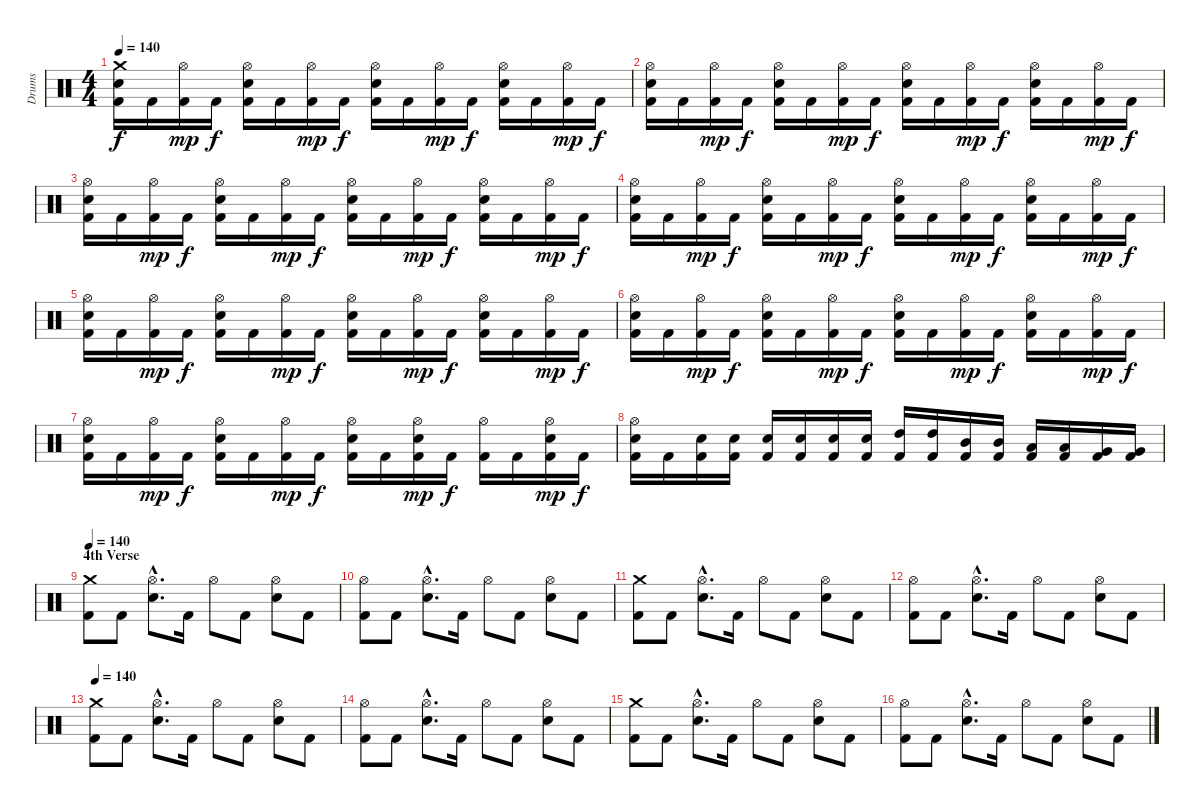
\track ("Drums" "Drums") {instrument percussion}
\staff {score}
\articulation defaults
\ts (4 4)
\tempo 140
\clef neutral
\ks c
("Kick (hit) 2" "Electric Snare (hit)" "Crash medium (hit)").16{dy f} "Kick (hit) 2".16 ("Kick (hit) 2" "Hi-Hat (open)").16{dy mp} "Kick (hit) 2".16{dy f} ("Kick (hit) 2" "Electric Snare (hit)" "Hi-Hat (open)").16 "Kick (hit) 2".16 ("Kick (hit) 2" "Hi-Hat (open)").16{dy mp} "Kick (hit) 2".16{dy f} ("Kick (hit) 2" "Electric Snare (hit)" "Hi-Hat (open)").16 "Kick (hit) 2".16 ("Kick (hit) 2" "Hi-Hat (open)").16{dy mp} "Kick (hit) 2".16{dy f} ("Kick (hit) 2" "Electric Snare (hit)" "Hi-Hat (open)").16 "Kick (hit) 2".16 ("Kick (hit) 2" "Hi-Hat (open)").16{dy mp} "Kick (hit) 2".16{dy f} |
("Kick (hit) 2" "Electric Snare (hit)" "Hi-Hat (open)").16 "Kick (hit) 2".16 ("Kick (hit) 2" "Hi-Hat (open)").16{dy mp} "Kick (hit) 2".16{dy f} ("Kick (hit) 2" "Electric Snare (hit)" "Hi-Hat (open)").16 "Kick (hit) 2".16 ("Kick (hit) 2" "Hi-Hat (open)").16{dy mp} "Kick (hit) 2".16{dy f} ("Kick (hit) 2" "Electric Snare (hit)" "Hi-Hat (open)").16 "Kick (hit) 2".16 ("Kick (hit) 2" "Hi-Hat (open)").16{dy mp} "Kick (hit) 2".16{dy f} ("Kick (hit) 2" "Electric Snare (hit)" "Hi-Hat (open)").16 "Kick (hit) 2".16 ("Kick (hit) 2" "Hi-Hat (open)").16{dy mp} "Kick (hit) 2".16{dy f} |
("Kick (hit) 2" "Electric Snare (hit)" "Hi-Hat (open)").16 "Kick (hit) 2".16 ("Kick (hit) 2" "Hi-Hat (open)").16{dy mp} "Kick (hit) 2".16{dy f} ("Kick (hit) 2" "Electric Snare (hit)" "Hi-Hat (open)").16 "Kick (hit) 2".16 ("Kick (hit) 2" "Hi-Hat (open)").16{dy mp} "Kick (hit) 2".16{dy f} ("Kick (hit) 2" "Electric Snare (hit)" "Hi-Hat (open)").16 "Kick (hit) 2".16 ("Kick (hit) 2" "Hi-Hat (open)").16{dy mp} "Kick (hit) 2".16{dy f} ("Kick (hit) 2" "Electric Snare (hit)" "Hi-Hat (open)").16 "Kick (hit) 2".16 ("Kick (hit) 2" "Hi-Hat (open)").16{dy mp} "Kick (hit) 2".16{dy f} |
("Kick (hit) 2" "Electric Snare (hit)" "Hi-Hat (open)").16 "Kick (hit) 2".16 ("Kick (hit) 2" "Hi-Hat (open)").16{dy mp} "Kick (hit) 2".16{dy f} ("Kick (hit) 2" "Electric Snare (hit)" "Hi-Hat (open)").16 "Kick (hit) 2".16 ("Kick (hit) 2" "Hi-Hat (open)").16{dy mp} "Kick (hit) 2".16{dy f} ("Kick (hit) 2" "Electric Snare (hit)" "Hi-Hat (open)").16 "Kick (hit) 2".16 ("Kick (hit) 2" "Hi-Hat (open)").16{dy mp} "Kick (hit) 2".16{dy f} ("Kick (hit) 2" "Electric Snare (hit)" "Hi-Hat (open)").16 "Kick (hit) 2".16 ("Kick (hit) 2" "Hi-Hat (open)").16{dy mp} "Kick (hit) 2".16{dy f} |
("Kick (hit) 2" "Electric Snare (hit)" "Hi-Hat (open)").16 "Kick (hit) 2".16 ("Kick (hit) 2" "Hi-Hat (open)").16{dy mp} "Kick (hit) 2".16{dy f} ("Kick (hit) 2" "Electric Snare (hit)" "Hi-Hat (open)").16 "Kick (hit) 2".16 ("Kick (hit) 2" "Hi-Hat (open)").16{dy mp} "Kick (hit) 2".16{dy f} ("Kick (hit) 2" "Electric Snare (hit)" "Hi-Hat (open)").16 "Kick (hit) 2".16 ("Kick (hit) 2" "Hi-Hat (open)").16{dy mp} "Kick (hit) 2".16{dy f} ("Kick (hit) 2" "Electric Snare (hit)" "Hi-Hat (open)").16 "Kick (hit) 2".16 ("Kick (hit) 2" "Hi-Hat (open)").16{dy mp} "Kick (hit) 2".16{dy f} |
("Kick (hit) 2" "Electric Snare (hit)" "Hi-Hat (open)").16 "Kick (hit) 2".16 ("Kick (hit) 2" "Hi-Hat (open)").16{dy mp} "Kick (hit) 2".16{dy f} ("Kick (hit) 2" "Electric Snare (hit)" "Hi-Hat (open)").16 "Kick (hit) 2".16 ("Kick (hit) 2" "Hi-Hat (open)").16{dy mp} "Kick (hit) 2".16{dy f} ("Kick (hit) 2" "Electric Snare (hit)" "Hi-Hat (open)").16 "Kick (hit) 2".16 ("Kick (hit) 2" "Hi-Hat (open)").16{dy mp} "Kick (hit) 2".16{dy f} ("Kick (hit) 2" "Electric Snare (hit)" "Hi-Hat (open)").16 "Kick (hit) 2".16 ("Kick (hit) 2" "Hi-Hat (open)").16{dy mp} "Kick (hit) 2".16{dy f} |
("Kick (hit) 2" "Electric Snare (hit)" "Hi-Hat (open)").16 "Kick (hit) 2".16 ("Kick (hit) 2" "Hi-Hat (open)").16{dy mp} "Kick (hit) 2".16{dy f} ("Kick (hit) 2" "Electric Snare (hit)" "Hi-Hat (open)").16 "Kick (hit) 2".16 ("Kick (hit) 2" "Hi-Hat (open)").16{dy mp} "Kick (hit) 2".16{dy f} ("Kick (hit) 2" "Electric Snare (hit)" "Hi-Hat (open)").16 "Kick (hit) 2".16 ("Kick (hit) 2" "Electric Snare (hit)" "Hi-Hat (open)").16{dy mp} "Kick (hit) 2".16{dy f} ("Kick (hit) 2" "Hi-Hat (open)").16 "Kick (hit) 2".16 ("Kick (hit) 2" "Electric Snare (hit)" "Hi-Hat (open)").16{dy mp} "Kick (hit) 2".16{dy f} |
("Kick (hit) 2" "Electric Snare (hit)" "Hi-Hat (open)").16 "Kick (hit) 2".16 ("Kick (hit) 2" "Electric Snare (hit)").16 ("Kick (hit) 2" "Electric Snare (hit)").16 ("Kick (hit) 2" "Electric Snare (hit)").16 ("Kick (hit) 2" "Electric Snare (hit)").16 ("Kick (hit) 2" "Electric Snare (hit)").16 ("Kick (hit) 2" "Electric Snare (hit)").16 ("Kick (hit) 2" "High Tom (hit)").16 ("Kick (hit) 2" "High Tom (hit)").16 ("Kick (hit) 2" "Mid Tom (hit)").16 ("Kick (hit) 2" "Mid Tom (hit)").16 ("Kick (hit) 2" "Low Tom (hit)").16 ("Kick (hit) 2" "Low Tom (hit)").16 ("Kick (hit) 2" "Very Low Tom (hit)").16 ("Kick (hit) 2" "Very Low Tom (hit)").16 |
\section ("" "4th Verse")
\tempo 140
("Kick (hit) 2" "Crash medium (hit)").8 "Kick (hit) 2".8 ("Electric Snare (hit)"{hac} "Hi-Hat (open)"{hac}).8{d} "Kick (hit) 2".16 "Hi-Hat (open)".8 "Kick (hit) 2".8 ("Electric Snare (hit)" "Hi-Hat (open)").8 "Kick (hit) 2".8 |
("Kick (hit) 2" "Hi-Hat (open)").8 "Kick (hit) 2".8 ("Electric Snare (hit)"{hac} "Hi-Hat (open)"{hac}).8{d} "Kick (hit) 2".16 "Hi-Hat (open)".8 "Kick (hit) 2".8 ("Electric Snare (hit)" "Hi-Hat (open)").8 "Kick (hit) 2".8 |
("Kick (hit) 2" "Crash medium (hit)").8 "Kick (hit) 2".8 ("Electric Snare (hit)"{hac} "Hi-Hat (open)"{hac}).8{d} "Kick (hit) 2".16 "Hi-Hat (open)".8 "Kick (hit) 2".8 ("Electric Snare (hit)" "Hi-Hat (open)").8 "Kick (hit) 2".8 |
("Kick (hit) 2" "Hi-Hat (open)").8 "Kick (hit) 2".8 ("Electric Snare (hit)"{hac} "Hi-Hat (open)"{hac}).8{d} "Kick (hit) 2".16 "Hi-Hat (open)".8 "Kick (hit) 2".8 ("Electric Snare (hit)" "Hi-Hat (open)").8 "Kick (hit) 2".8 |
\tempo 140
("Kick (hit) 2" "Crash medium (hit)").8 "Kick (hit) 2".8 ("Electric Snare (hit)"{hac} "Hi-Hat (open)"{hac}).8{d} "Kick (hit) 2".16 "Hi-Hat (open)".8 "Kick (hit) 2".8 ("Electric Snare (hit)" "Hi-Hat (open)").8 "Kick (hit) 2".8 |
("Kick (hit) 2" "Hi-Hat (open)").8 "Kick (hit) 2".8 ("Electric Snare (hit)"{hac} "Hi-Hat (open)"{hac}).8{d} "Kick (hit) 2".16 "Hi-Hat (open)".8 "Kick (hit) 2".8 ("Electric Snare (hit)" "Hi-Hat (open)").8 "Kick (hit) 2".8 |
("Kick (hit) 2" "Crash medium (hit)").8 "Kick (hit) 2".8 ("Electric Snare (hit)"{hac} "Hi-Hat (open)"{hac}).8{d} "Kick (hit) 2".16 "Hi-Hat (open)".8 "Kick (hit) 2".8 ("Electric Snare (hit)" "Hi-Hat (open)").8 "Kick (hit) 2".8 |
("Kick (hit) 2" "Hi-Hat (open)").8 "Kick (hit) 2".8 ("Electric Snare (hit)"{hac} "Hi-Hat (open)"{hac}).8{d} "Kick (hit) 2".16 "Hi-Hat (open)".8 "Kick (hit) 2".8 ("Electric Snare (hit)" "Hi-Hat (open)").8 "Kick (hit) 2".8
